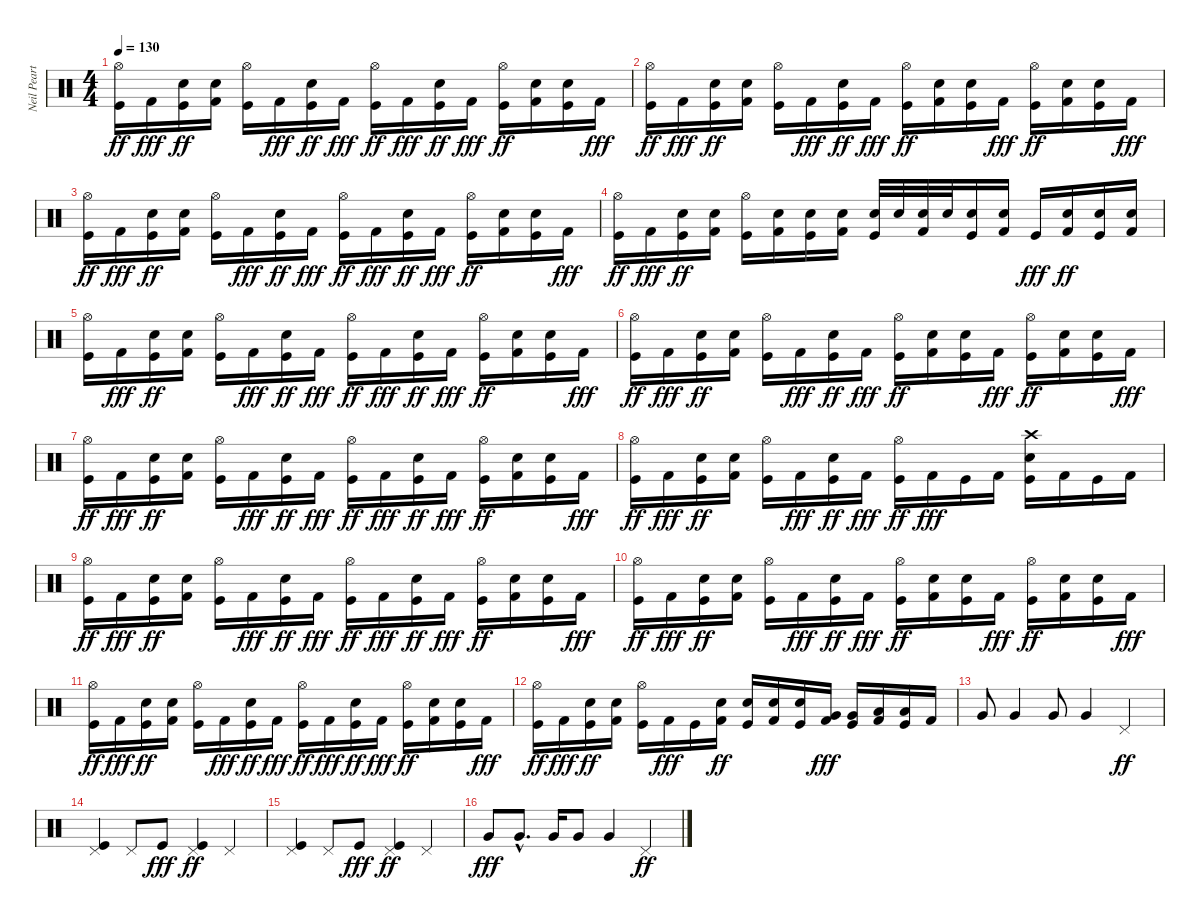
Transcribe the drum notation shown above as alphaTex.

\track ("Neil Peart" "Neil Peart") {instrument percussion}
\staff {score}
\articulation defaults
\ts (4 4)
\tempo 130
\clef neutral
\ks c
("Kick (hit)" "Hi-Hat (open)").16{dy ff} "Kick (hit) 2".16{dy fff} ("Kick (hit)" "Snare (hit) 2").16{dy ff} ("Kick (hit) 2" "Snare (hit) 2").16 ("Kick (hit)" "Hi-Hat (open)").16 "Kick (hit) 2".16{dy fff} ("Kick (hit)" "Snare (hit) 2").16{dy ff} "Kick (hit) 2".16{dy fff} ("Kick (hit)" "Hi-Hat (open)").16{dy ff} "Kick (hit) 2".16{dy fff} ("Kick (hit)" "Snare (hit) 2").16{dy ff} "Kick (hit) 2".16{dy fff} ("Kick (hit)" "Hi-Hat (open)").16{dy ff} ("Kick (hit) 2" "Snare (hit) 2").16 ("Kick (hit)" "Snare (hit) 2").16 "Kick (hit) 2".16{dy fff} |
("Kick (hit)" "Hi-Hat (open)").16{dy ff} "Kick (hit) 2".16{dy fff} ("Kick (hit)" "Snare (hit) 2").16{dy ff} ("Kick (hit) 2" "Snare (hit) 2").16 ("Kick (hit)" "Hi-Hat (open)").16 "Kick (hit) 2".16{dy fff} ("Kick (hit)" "Snare (hit) 2").16{dy ff} "Kick (hit) 2".16{dy fff} ("Kick (hit)" "Hi-Hat (open)").16{dy ff} ("Kick (hit) 2" "Snare (hit) 2").16 ("Kick (hit)" "Snare (hit) 2").16 "Kick (hit) 2".16{dy fff} ("Kick (hit)" "Hi-Hat (open)").16{dy ff} ("Kick (hit) 2" "Snare (hit) 2").16 ("Kick (hit)" "Snare (hit) 2").16 "Kick (hit) 2".16{dy fff} |
("Kick (hit)" "Hi-Hat (open)").16{dy ff} "Kick (hit) 2".16{dy fff} ("Kick (hit)" "Snare (hit) 2").16{dy ff} ("Kick (hit) 2" "Snare (hit) 2").16 ("Kick (hit)" "Hi-Hat (open)").16 "Kick (hit) 2".16{dy fff} ("Kick (hit)" "Snare (hit) 2").16{dy ff} "Kick (hit) 2".16{dy fff} ("Kick (hit)" "Hi-Hat (open)").16{dy ff} "Kick (hit) 2".16{dy fff} ("Kick (hit)" "Snare (hit) 2").16{dy ff} "Kick (hit) 2".16{dy fff} ("Kick (hit)" "Hi-Hat (open)").16{dy ff} ("Kick (hit) 2" "Snare (hit) 2").16 ("Kick (hit)" "Snare (hit) 2").16 "Kick (hit) 2".16{dy fff} |
("Kick (hit)" "Hi-Hat (open)").16{dy ff} "Kick (hit) 2".16{dy fff} ("Kick (hit)" "Snare (hit) 2").16{dy ff} ("Kick (hit) 2" "Snare (hit) 2").16 ("Kick (hit)" "Hi-Hat (open)").16 ("Kick (hit) 2" "Snare (hit) 2").16 ("Kick (hit)" "Snare (hit) 2").16 ("Kick (hit) 2" "Snare (hit) 2").16 ("Kick (hit)" "Snare (hit) 2").32 "Snare (hit) 2".32 ("Kick (hit) 2" "Snare (hit) 2").32 "Snare (hit) 2".32 ("Kick (hit)" "Snare (hit) 2").16 ("Kick (hit) 2" "Snare (hit) 2").16 "Kick (hit)".16{dy fff} ("Kick (hit) 2" "Snare (hit) 2").16{dy ff} ("Kick (hit)" "Snare (hit) 2").16 ("Kick (hit) 2" "Snare (hit) 2").16 |
("Kick (hit)" "Hi-Hat (open)").16 "Kick (hit) 2".16{dy fff} ("Kick (hit)" "Snare (hit) 2").16{dy ff} ("Kick (hit) 2" "Snare (hit) 2").16 ("Kick (hit)" "Hi-Hat (open)").16 "Kick (hit) 2".16{dy fff} ("Kick (hit)" "Snare (hit) 2").16{dy ff} "Kick (hit) 2".16{dy fff} ("Kick (hit)" "Hi-Hat (open)").16{dy ff} "Kick (hit) 2".16{dy fff} ("Kick (hit)" "Snare (hit) 2").16{dy ff} "Kick (hit) 2".16{dy fff} ("Kick (hit)" "Hi-Hat (open)").16{dy ff} ("Kick (hit) 2" "Snare (hit) 2").16 ("Kick (hit)" "Snare (hit) 2").16 "Kick (hit) 2".16{dy fff} |
("Kick (hit)" "Hi-Hat (open)").16{dy ff} "Kick (hit) 2".16{dy fff} ("Kick (hit)" "Snare (hit) 2").16{dy ff} ("Kick (hit) 2" "Snare (hit) 2").16 ("Kick (hit)" "Hi-Hat (open)").16 "Kick (hit) 2".16{dy fff} ("Kick (hit)" "Snare (hit) 2").16{dy ff} "Kick (hit) 2".16{dy fff} ("Kick (hit)" "Hi-Hat (open)").16{dy ff} ("Kick (hit) 2" "Snare (hit) 2").16 ("Kick (hit)" "Snare (hit) 2").16 "Kick (hit) 2".16{dy fff} ("Kick (hit)" "Hi-Hat (open)").16{dy ff} ("Kick (hit) 2" "Snare (hit) 2").16 ("Kick (hit)" "Snare (hit) 2").16 "Kick (hit) 2".16{dy fff} |
("Kick (hit)" "Hi-Hat (open)").16{dy ff} "Kick (hit) 2".16{dy fff} ("Kick (hit)" "Snare (hit) 2").16{dy ff} ("Kick (hit) 2" "Snare (hit) 2").16 ("Kick (hit)" "Hi-Hat (open)").16 "Kick (hit) 2".16{dy fff} ("Kick (hit)" "Snare (hit) 2").16{dy ff} "Kick (hit) 2".16{dy fff} ("Kick (hit)" "Hi-Hat (open)").16{dy ff} "Kick (hit) 2".16{dy fff} ("Kick (hit)" "Snare (hit) 2").16{dy ff} "Kick (hit) 2".16{dy fff} ("Kick (hit)" "Hi-Hat (open)").16{dy ff} ("Kick (hit) 2" "Snare (hit) 2").16 ("Kick (hit)" "Snare (hit) 2").16 "Kick (hit) 2".16{dy fff} |
("Kick (hit)" "Hi-Hat (open)").16{dy ff} "Kick (hit) 2".16{dy fff} ("Kick (hit)" "Snare (hit) 2").16{dy ff} ("Kick (hit) 2" "Snare (hit) 2").16 ("Kick (hit)" "Hi-Hat (open)").16 "Kick (hit) 2".16{dy fff} ("Kick (hit)" "Snare (hit) 2").16{dy ff} "Kick (hit) 2".16{dy fff} ("Kick (hit)" "Hi-Hat (open)").16{dy ff} "Kick (hit) 2".16{dy fff} "Kick (hit)".16 "Kick (hit) 2".16 ("Kick (hit)" "Snare (hit) 2" "Crash high (hit)").16 "Kick (hit) 2".16 "Kick (hit)".16 "Kick (hit) 2".16 |
("Kick (hit)" "Hi-Hat (open)").16{dy ff} "Kick (hit) 2".16{dy fff} ("Kick (hit)" "Snare (hit) 2").16{dy ff} ("Kick (hit) 2" "Snare (hit) 2").16 ("Kick (hit)" "Hi-Hat (open)").16 "Kick (hit) 2".16{dy fff} ("Kick (hit)" "Snare (hit) 2").16{dy ff} "Kick (hit) 2".16{dy fff} ("Kick (hit)" "Hi-Hat (open)").16{dy ff} "Kick (hit) 2".16{dy fff} ("Kick (hit)" "Snare (hit) 2").16{dy ff} "Kick (hit) 2".16{dy fff} ("Kick (hit)" "Hi-Hat (open)").16{dy ff} ("Kick (hit) 2" "Snare (hit) 2").16 ("Kick (hit)" "Snare (hit) 2").16 "Kick (hit) 2".16{dy fff} |
("Kick (hit)" "Hi-Hat (open)").16{dy ff} "Kick (hit) 2".16{dy fff} ("Kick (hit)" "Snare (hit) 2").16{dy ff} ("Kick (hit) 2" "Snare (hit) 2").16 ("Kick (hit)" "Hi-Hat (open)").16 "Kick (hit) 2".16{dy fff} ("Kick (hit)" "Snare (hit) 2").16{dy ff} "Kick (hit) 2".16{dy fff} ("Kick (hit)" "Hi-Hat (open)").16{dy ff} ("Kick (hit) 2" "Snare (hit) 2").16 ("Kick (hit)" "Snare (hit) 2").16 "Kick (hit) 2".16{dy fff} ("Kick (hit)" "Hi-Hat (open)").16{dy ff} ("Kick (hit) 2" "Snare (hit) 2").16 ("Kick (hit)" "Snare (hit) 2").16 "Kick (hit) 2".16{dy fff} |
("Kick (hit)" "Hi-Hat (open)").16{dy ff} "Kick (hit) 2".16{dy fff} ("Kick (hit)" "Snare (hit) 2").16{dy ff} ("Kick (hit) 2" "Snare (hit) 2").16 ("Kick (hit)" "Hi-Hat (open)").16 "Kick (hit) 2".16{dy fff} ("Kick (hit)" "Snare (hit) 2").16{dy ff} "Kick (hit) 2".16{dy fff} ("Kick (hit)" "Hi-Hat (open)").16{dy ff} "Kick (hit) 2".16{dy fff} ("Kick (hit)" "Snare (hit) 2").16{dy ff} "Kick (hit) 2".16{dy fff} ("Kick (hit)" "Hi-Hat (open)").16{dy ff} ("Kick (hit) 2" "Snare (hit) 2").16 ("Kick (hit)" "Snare (hit) 2").16 "Kick (hit) 2".16{dy fff} |
("Kick (hit)" "Hi-Hat (open)").16{dy ff} "Kick (hit) 2".16{dy fff} ("Kick (hit)" "Snare (hit) 2").16{dy ff} ("Kick (hit) 2" "Snare (hit) 2").16 ("Kick (hit)" "Hi-Hat (open)").16 "Kick (hit) 2".16{dy fff} "Kick (hit)".16 ("Kick (hit) 2" "Snare (hit) 2").16{dy ff} ("Kick (hit)" "Snare (hit) 2").16 ("Kick (hit) 2" "Snare (hit) 2").16 ("Kick (hit)" "Snare (hit) 2").16 ("Kick (hit) 2" "Very Low Tom (hit)").16{dy fff} ("Kick (hit)" "Very Low Tom (hit)").16 ("Kick (hit) 2" "Low Floor Tom (hit)").16 ("Kick (hit)" "Low Floor Tom (hit)").16 "Kick (hit) 2".16 |
"Very Low Tom (hit)".8 "Very Low Tom (hit)".4 "Very Low Tom (hit)".8 "Very Low Tom (hit)".4 "Pedal Hi-Hat (hit)".4{dy ff} |
("Kick (hit)" "Pedal Hi-Hat (hit)").4 "Pedal Hi-Hat (hit)".8 "Kick (hit)".8{dy fff} ("Kick (hit)" "Pedal Hi-Hat (hit)").4{dy ff} "Pedal Hi-Hat (hit)".4 |
("Kick (hit)" "Pedal Hi-Hat (hit)").4 "Pedal Hi-Hat (hit)".8 "Kick (hit)".8{dy fff} ("Kick (hit)" "Pedal Hi-Hat (hit)").4{dy ff} "Pedal Hi-Hat (hit)".4 |
"Very Low Tom (hit)".8{dy fff} "Very Low Tom (hit)"{hac}.8{d} "Very Low Tom (hit)".16 "Very Low Tom (hit)".8 "Very Low Tom (hit)".4 "Pedal Hi-Hat (hit)".4{dy ff}
